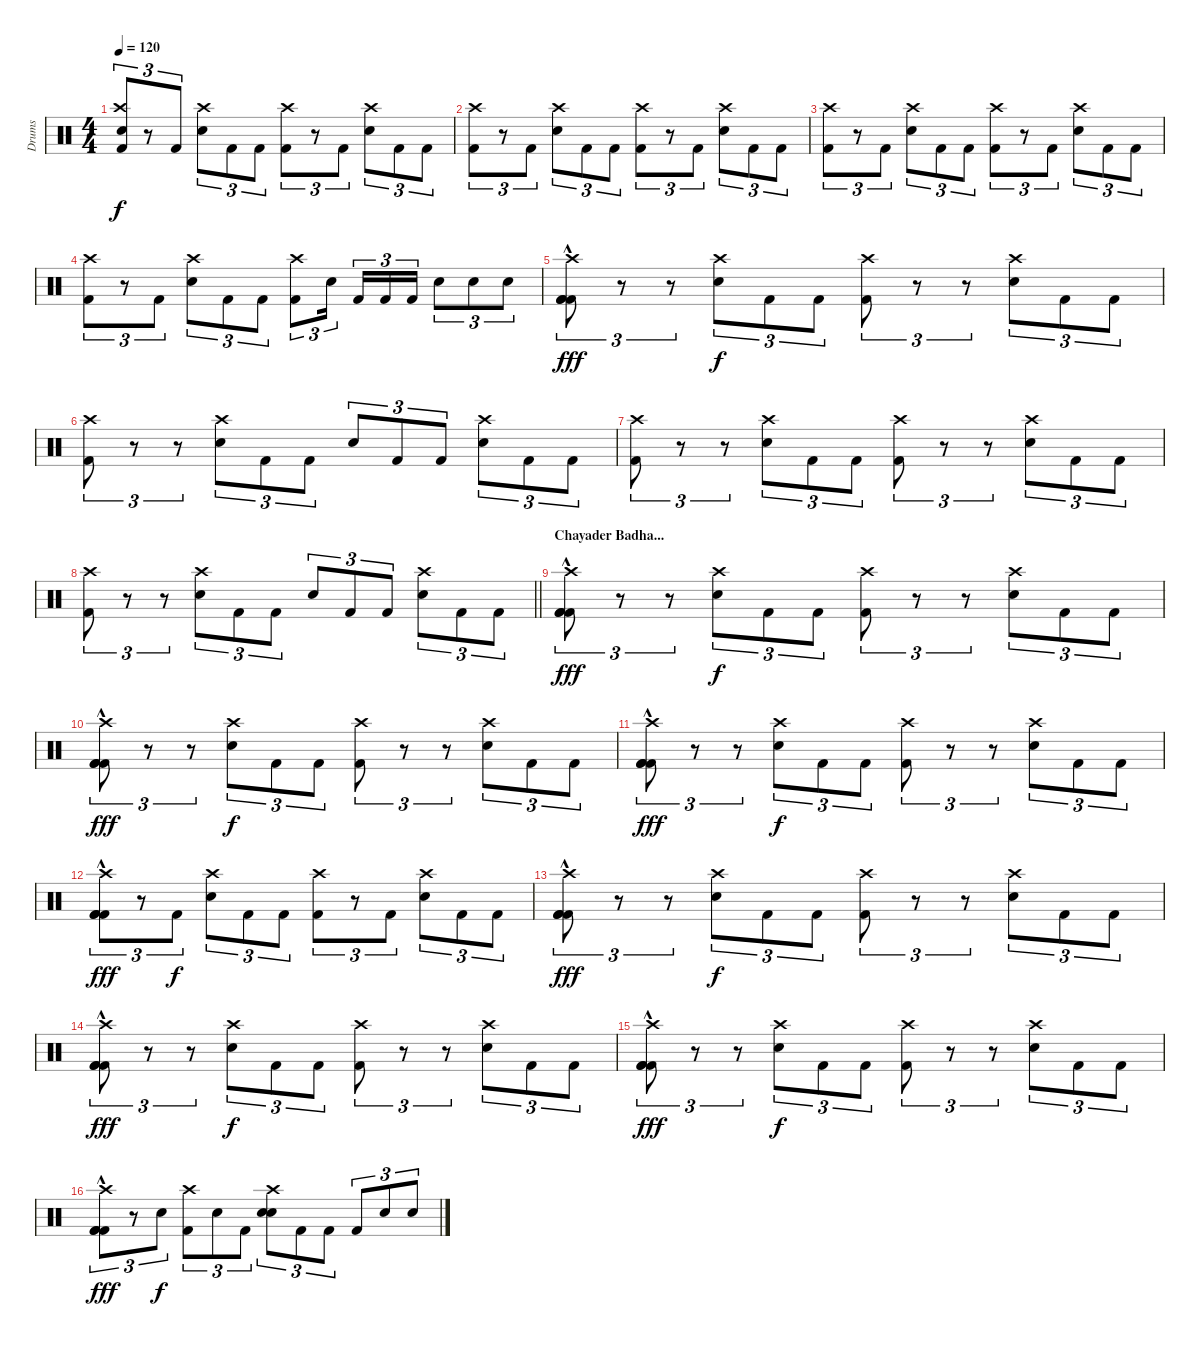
\track ("Drums" "Drums") {instrument percussion}
\staff {score}
\articulation defaults
\ts (4 4)
\tempo 120
\clef neutral
\ks c
("Kick (hit) 2" "Crash high (hit)" "Snare (hit)").8{tu (3 2) dy f} r.8{tu (3 2)} "Kick (hit) 2".8{tu (3 2)} ("Electric Snare (hit)" "Crash high (hit)").8{tu (3 2)} "Kick (hit) 2".8{tu (3 2)} "Kick (hit) 2".8{tu (3 2)} ("Kick (hit) 2" "Crash high (hit)").8{tu (3 2)} r.8{tu (3 2)} "Kick (hit) 2".8{tu (3 2)} ("Electric Snare (hit)" "Crash high (hit)").8{tu (3 2)} "Kick (hit) 2".8{tu (3 2)} "Kick (hit) 2".8{tu (3 2)} |
("Kick (hit) 2" "Crash high (hit)").8{tu (3 2)} r.8{tu (3 2)} "Kick (hit) 2".8{tu (3 2)} ("Electric Snare (hit)" "Crash high (hit)").8{tu (3 2)} "Kick (hit) 2".8{tu (3 2)} "Kick (hit) 2".8{tu (3 2)} ("Kick (hit) 2" "Crash high (hit)").8{tu (3 2)} r.8{tu (3 2)} "Kick (hit) 2".8{tu (3 2)} ("Electric Snare (hit)" "Crash high (hit)").8{tu (3 2)} "Kick (hit) 2".8{tu (3 2)} "Kick (hit) 2".8{tu (3 2)} |
("Kick (hit) 2" "Crash high (hit)").8{tu (3 2)} r.8{tu (3 2)} "Kick (hit) 2".8{tu (3 2)} ("Electric Snare (hit)" "Crash high (hit)").8{tu (3 2)} "Kick (hit) 2".8{tu (3 2)} "Kick (hit) 2".8{tu (3 2)} ("Kick (hit) 2" "Crash high (hit)").8{tu (3 2)} r.8{tu (3 2)} "Kick (hit) 2".8{tu (3 2)} ("Electric Snare (hit)" "Crash high (hit)").8{tu (3 2)} "Kick (hit) 2".8{tu (3 2)} "Kick (hit) 2".8{tu (3 2)} |
("Kick (hit) 2" "Crash high (hit)").8{tu (3 2)} r.8{tu (3 2)} "Kick (hit) 2".8{tu (3 2)} ("Electric Snare (hit)" "Crash high (hit)").8{tu (3 2)} "Kick (hit) 2".8{tu (3 2)} "Kick (hit) 2".8{tu (3 2)} ("Kick (hit) 2" "Crash high (hit)").8{tu (3 2)} "Electric Snare (hit)".16{tu (3 2) beam splitsecondary} "Kick (hit) 2".16{tu (3 2)} "Kick (hit) 2".16{tu (3 2)} "Kick (hit) 2".16{tu (3 2)} "Electric Snare (hit)".8{tu (3 2)} "Electric Snare (hit)".8{tu (3 2)} "Electric Snare (hit)".8{tu (3 2)} |
("Kick (hit) 2"{hac} "Crash high (hit)"{hac} "Kick (hit) 2"{hac} "Kick (hit) 2"{hac}).8{tu (3 2) dy fff} r.8{tu (3 2)} r.8{tu (3 2)} ("Electric Snare (hit)" "Crash high (hit)").8{tu (3 2) dy f} "Kick (hit) 2".8{tu (3 2)} "Kick (hit) 2".8{tu (3 2)} ("Kick (hit) 2" "Crash high (hit)").8{tu (3 2)} r.8{tu (3 2)} r.8{tu (3 2)} ("Electric Snare (hit)" "Crash high (hit)").8{tu (3 2)} "Kick (hit) 2".8{tu (3 2)} "Kick (hit) 2".8{tu (3 2)} |
("Kick (hit) 2" "Crash high (hit)").8{tu (3 2)} r.8{tu (3 2)} r.8{tu (3 2)} ("Electric Snare (hit)" "Crash high (hit)").8{tu (3 2)} "Kick (hit) 2".8{tu (3 2)} "Kick (hit) 2".8{tu (3 2)} "Electric Snare (hit)".8{tu (3 2)} "Kick (hit) 2".8{tu (3 2)} "Kick (hit) 2".8{tu (3 2)} ("Electric Snare (hit)" "Crash high (hit)").8{tu (3 2)} "Kick (hit) 2".8{tu (3 2)} "Kick (hit) 2".8{tu (3 2)} |
("Kick (hit) 2" "Crash high (hit)").8{tu (3 2)} r.8{tu (3 2)} r.8{tu (3 2)} ("Electric Snare (hit)" "Crash high (hit)").8{tu (3 2)} "Kick (hit) 2".8{tu (3 2)} "Kick (hit) 2".8{tu (3 2)} ("Kick (hit) 2" "Crash high (hit)").8{tu (3 2)} r.8{tu (3 2)} r.8{tu (3 2)} ("Electric Snare (hit)" "Crash high (hit)").8{tu (3 2)} "Kick (hit) 2".8{tu (3 2)} "Kick (hit) 2".8{tu (3 2)} |
\barLineRight lightlight
("Kick (hit) 2" "Crash high (hit)").8{tu (3 2)} r.8{tu (3 2)} r.8{tu (3 2)} ("Electric Snare (hit)" "Crash high (hit)").8{tu (3 2)} "Kick (hit) 2".8{tu (3 2)} "Kick (hit) 2".8{tu (3 2)} "Electric Snare (hit)".8{tu (3 2)} "Kick (hit) 2".8{tu (3 2)} "Kick (hit) 2".8{tu (3 2)} ("Electric Snare (hit)" "Crash high (hit)").8{tu (3 2)} "Kick (hit) 2".8{tu (3 2)} "Kick (hit) 2".8{tu (3 2)} |
\section ("" "Chayader Badha...")
("Kick (hit) 2"{hac} "Crash high (hit)"{hac} "Kick (hit) 2"{hac} "Kick (hit) 2"{hac}).8{tu (3 2) dy fff} r.8{tu (3 2)} r.8{tu (3 2)} ("Electric Snare (hit)" "Crash high (hit)").8{tu (3 2) dy f} "Kick (hit) 2".8{tu (3 2)} "Kick (hit) 2".8{tu (3 2)} ("Kick (hit) 2" "Crash high (hit)").8{tu (3 2)} r.8{tu (3 2)} r.8{tu (3 2)} ("Electric Snare (hit)" "Crash high (hit)").8{tu (3 2)} "Kick (hit) 2".8{tu (3 2)} "Kick (hit) 2".8{tu (3 2)} |
("Kick (hit) 2"{hac} "Crash high (hit)"{hac} "Kick (hit) 2"{hac} "Kick (hit) 2"{hac}).8{tu (3 2) dy fff} r.8{tu (3 2)} r.8{tu (3 2)} ("Electric Snare (hit)" "Crash high (hit)").8{tu (3 2) dy f} "Kick (hit) 2".8{tu (3 2)} "Kick (hit) 2".8{tu (3 2)} ("Kick (hit) 2" "Crash high (hit)").8{tu (3 2)} r.8{tu (3 2)} r.8{tu (3 2)} ("Electric Snare (hit)" "Crash high (hit)").8{tu (3 2)} "Kick (hit) 2".8{tu (3 2)} "Kick (hit) 2".8{tu (3 2)} |
("Kick (hit) 2"{hac} "Crash high (hit)"{hac} "Kick (hit) 2"{hac} "Kick (hit) 2"{hac}).8{tu (3 2) dy fff} r.8{tu (3 2)} r.8{tu (3 2)} ("Electric Snare (hit)" "Crash high (hit)").8{tu (3 2) dy f} "Kick (hit) 2".8{tu (3 2)} "Kick (hit) 2".8{tu (3 2)} ("Kick (hit) 2" "Crash high (hit)").8{tu (3 2)} r.8{tu (3 2)} r.8{tu (3 2)} ("Electric Snare (hit)" "Crash high (hit)").8{tu (3 2)} "Kick (hit) 2".8{tu (3 2)} "Kick (hit) 2".8{tu (3 2)} |
("Kick (hit) 2"{hac} "Crash high (hit)"{hac} "Kick (hit) 2"{hac} "Kick (hit) 2"{hac}).8{tu (3 2) dy fff} r.8{tu (3 2)} "Kick (hit) 2".8{tu (3 2) dy f} ("Electric Snare (hit)" "Crash high (hit)").8{tu (3 2)} "Kick (hit) 2".8{tu (3 2)} "Kick (hit) 2".8{tu (3 2)} ("Kick (hit) 2" "Crash high (hit)").8{tu (3 2)} r.8{tu (3 2)} "Kick (hit) 2".8{tu (3 2)} ("Electric Snare (hit)" "Crash high (hit)").8{tu (3 2)} "Kick (hit) 2".8{tu (3 2)} "Kick (hit) 2".8{tu (3 2)} |
("Kick (hit) 2"{hac} "Crash high (hit)"{hac} "Kick (hit) 2"{hac} "Kick (hit) 2"{hac}).8{tu (3 2) dy fff} r.8{tu (3 2)} r.8{tu (3 2)} ("Electric Snare (hit)" "Crash high (hit)").8{tu (3 2) dy f} "Kick (hit) 2".8{tu (3 2)} "Kick (hit) 2".8{tu (3 2)} ("Kick (hit) 2" "Crash high (hit)").8{tu (3 2)} r.8{tu (3 2)} r.8{tu (3 2)} ("Electric Snare (hit)" "Crash high (hit)").8{tu (3 2)} "Kick (hit) 2".8{tu (3 2)} "Kick (hit) 2".8{tu (3 2)} |
("Kick (hit) 2"{hac} "Crash high (hit)"{hac} "Kick (hit) 2"{hac} "Kick (hit) 2"{hac}).8{tu (3 2) dy fff} r.8{tu (3 2)} r.8{tu (3 2)} ("Electric Snare (hit)" "Crash high (hit)").8{tu (3 2) dy f} "Kick (hit) 2".8{tu (3 2)} "Kick (hit) 2".8{tu (3 2)} ("Kick (hit) 2" "Crash high (hit)").8{tu (3 2)} r.8{tu (3 2)} r.8{tu (3 2)} ("Electric Snare (hit)" "Crash high (hit)").8{tu (3 2)} "Kick (hit) 2".8{tu (3 2)} "Kick (hit) 2".8{tu (3 2)} |
("Kick (hit) 2"{hac} "Crash high (hit)"{hac} "Kick (hit) 2"{hac} "Kick (hit) 2"{hac}).8{tu (3 2) dy fff} r.8{tu (3 2)} r.8{tu (3 2)} ("Electric Snare (hit)" "Crash high (hit)").8{tu (3 2) dy f} "Kick (hit) 2".8{tu (3 2)} "Kick (hit) 2".8{tu (3 2)} ("Kick (hit) 2" "Crash high (hit)").8{tu (3 2)} r.8{tu (3 2)} r.8{tu (3 2)} ("Electric Snare (hit)" "Crash high (hit)").8{tu (3 2)} "Kick (hit) 2".8{tu (3 2)} "Kick (hit) 2".8{tu (3 2)} |
("Kick (hit) 2"{hac} "Crash high (hit)"{hac} "Kick (hit) 2"{hac} "Kick (hit) 2"{hac}).8{tu (3 2) dy fff} r.8{tu (3 2)} "Electric Snare (hit)".8{tu (3 2) dy f} ("Kick (hit) 2" "Crash high (hit)").8{tu (3 2)} "Electric Snare (hit)".8{tu (3 2)} "Kick (hit) 2".8{tu (3 2)} ("Electric Snare (hit)" "Electric Snare (hit)" "Crash high (hit)").8{tu (3 2)} "Kick (hit) 2".8{tu (3 2)} "Kick (hit) 2".8{tu (3 2)} "Kick (hit) 2".8{tu (3 2)} "Electric Snare (hit)".8{tu (3 2)} "Electric Snare (hit)".8{tu (3 2)}
